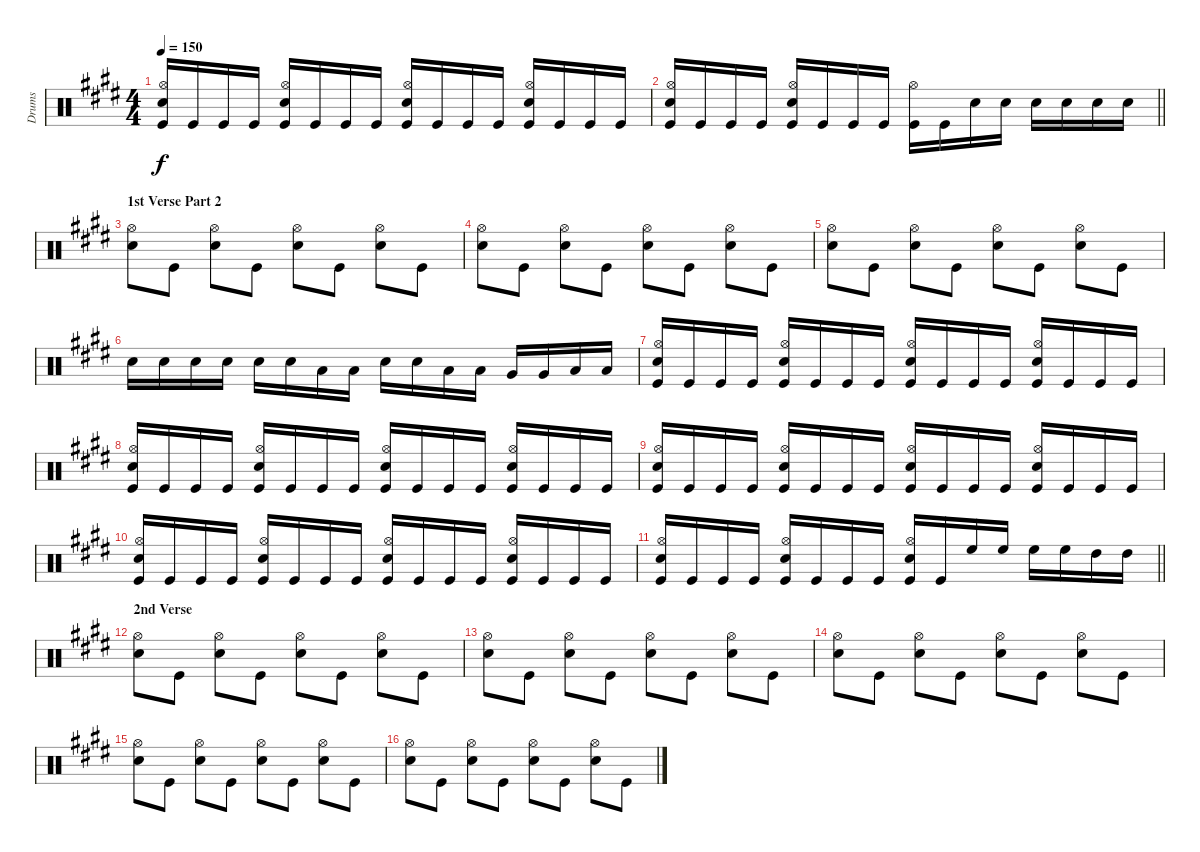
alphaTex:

\track ("Drums" "Drums") {instrument percussion}
\staff {score}
\articulation defaults
\ts (4 4)
\tempo 150
\clef neutral
\ks c#minor
("Snare (hit) 2" "Hi-Hat (open)" "Kick (hit)").16{dy f} "Kick (hit)".16 "Kick (hit)".16 "Kick (hit)".16 ("Snare (hit) 2" "Hi-Hat (open)" "Kick (hit)").16 "Kick (hit)".16 "Kick (hit)".16 "Kick (hit)".16 ("Snare (hit) 2" "Hi-Hat (open)" "Kick (hit)").16 "Kick (hit)".16 "Kick (hit)".16 "Kick (hit)".16 ("Snare (hit) 2" "Hi-Hat (open)" "Kick (hit)").16 "Kick (hit)".16 "Kick (hit)".16 "Kick (hit)".16 |
\barLineRight lightlight
("Snare (hit) 2" "Hi-Hat (open)" "Kick (hit)").16 "Kick (hit)".16 "Kick (hit)".16 "Kick (hit)".16 ("Snare (hit) 2" "Hi-Hat (open)" "Kick (hit)").16 "Kick (hit)".16 "Kick (hit)".16 "Kick (hit)".16 ("Hi-Hat (open)" "Kick (hit)").16 "Kick (hit)".16 "Snare (hit) 2".16 "Snare (hit) 2".16 "Snare (hit) 2".16 "Snare (hit) 2".16 "Snare (hit) 2".16 "Snare (hit) 2".16 |
\section ("" "1st Verse Part 2")
("Snare (hit) 2" "Hi-Hat (open)").8 "Kick (hit)".8 ("Snare (hit) 2" "Hi-Hat (open)").8 "Kick (hit)".8 ("Snare (hit) 2" "Hi-Hat (open)").8 "Kick (hit)".8 ("Snare (hit) 2" "Hi-Hat (open)").8 "Kick (hit)".8 |
("Snare (hit) 2" "Hi-Hat (open)").8 "Kick (hit)".8 ("Snare (hit) 2" "Hi-Hat (open)").8 "Kick (hit)".8 ("Snare (hit) 2" "Hi-Hat (open)").8 "Kick (hit)".8 ("Snare (hit) 2" "Hi-Hat (open)").8 "Kick (hit)".8 |
("Snare (hit) 2" "Hi-Hat (open)").8 "Kick (hit)".8 ("Snare (hit) 2" "Hi-Hat (open)").8 "Kick (hit)".8 ("Snare (hit) 2" "Hi-Hat (open)").8 "Kick (hit)".8 ("Snare (hit) 2" "Hi-Hat (open)").8 "Kick (hit)".8 |
"Snare (hit) 2".16 "Snare (hit) 2".16 "Snare (hit) 2".16 "Snare (hit) 2".16 "Snare (hit) 2".16 "Snare (hit) 2".16 "Low Tom (hit)".16 "Low Tom (hit)".16 "Snare (hit) 2".16 "Snare (hit) 2".16 "Low Tom (hit)".16 "Low Tom (hit)".16 "Very Low Tom (hit)".16 "Very Low Tom (hit)".16 "Low Floor Tom (hit)".16 "Low Floor Tom (hit)".16 |
("Snare (hit) 2" "Hi-Hat (open)" "Kick (hit)").16 "Kick (hit)".16 "Kick (hit)".16 "Kick (hit)".16 ("Snare (hit) 2" "Hi-Hat (open)" "Kick (hit)").16 "Kick (hit)".16 "Kick (hit)".16 "Kick (hit)".16 ("Snare (hit) 2" "Hi-Hat (open)" "Kick (hit)").16 "Kick (hit)".16 "Kick (hit)".16 "Kick (hit)".16 ("Snare (hit) 2" "Hi-Hat (open)" "Kick (hit)").16 "Kick (hit)".16 "Kick (hit)".16 "Kick (hit)".16 |
("Snare (hit) 2" "Hi-Hat (open)" "Kick (hit)").16 "Kick (hit)".16 "Kick (hit)".16 "Kick (hit)".16 ("Snare (hit) 2" "Hi-Hat (open)" "Kick (hit)").16 "Kick (hit)".16 "Kick (hit)".16 "Kick (hit)".16 ("Snare (hit) 2" "Hi-Hat (open)" "Kick (hit)").16 "Kick (hit)".16 "Kick (hit)".16 "Kick (hit)".16 ("Snare (hit) 2" "Hi-Hat (open)" "Kick (hit)").16 "Kick (hit)".16 "Kick (hit)".16 "Kick (hit)".16 |
("Snare (hit) 2" "Hi-Hat (open)" "Kick (hit)").16 "Kick (hit)".16 "Kick (hit)".16 "Kick (hit)".16 ("Snare (hit) 2" "Hi-Hat (open)" "Kick (hit)").16 "Kick (hit)".16 "Kick (hit)".16 "Kick (hit)".16 ("Snare (hit) 2" "Hi-Hat (open)" "Kick (hit)").16 "Kick (hit)".16 "Kick (hit)".16 "Kick (hit)".16 ("Snare (hit) 2" "Hi-Hat (open)" "Kick (hit)").16 "Kick (hit)".16 "Kick (hit)".16 "Kick (hit)".16 |
("Snare (hit) 2" "Hi-Hat (open)" "Kick (hit)").16 "Kick (hit)".16 "Kick (hit)".16 "Kick (hit)".16 ("Snare (hit) 2" "Hi-Hat (open)" "Kick (hit)").16 "Kick (hit)".16 "Kick (hit)".16 "Kick (hit)".16 ("Snare (hit) 2" "Hi-Hat (open)" "Kick (hit)").16 "Kick (hit)".16 "Kick (hit)".16 "Kick (hit)".16 ("Snare (hit) 2" "Hi-Hat (open)" "Kick (hit)").16 "Kick (hit)".16 "Kick (hit)".16 "Kick (hit)".16 |
\barLineRight lightlight
("Snare (hit) 2" "Hi-Hat (open)" "Kick (hit)").16 "Kick (hit)".16 "Kick (hit)".16 "Kick (hit)".16 ("Snare (hit) 2" "Hi-Hat (open)" "Kick (hit)").16 "Kick (hit)".16 "Kick (hit)".16 "Kick (hit)".16 ("Snare (hit) 2" "Hi-Hat (open)" "Kick (hit)").16 "Kick (hit)".16 "High Floor Tom (hit)".16 "High Floor Tom (hit)".16 "High Floor Tom (hit)".16 "High Floor Tom (hit)".16 "High Tom (hit)".16 "High Tom (hit)".16 |
\section ("" "2nd Verse")
("Snare (hit) 2" "Hi-Hat (open)").8 "Kick (hit)".8 ("Snare (hit) 2" "Hi-Hat (open)").8 "Kick (hit)".8 ("Snare (hit) 2" "Hi-Hat (open)").8 "Kick (hit)".8 ("Snare (hit) 2" "Hi-Hat (open)").8 "Kick (hit)".8 |
("Snare (hit) 2" "Hi-Hat (open)").8 "Kick (hit)".8 ("Snare (hit) 2" "Hi-Hat (open)").8 "Kick (hit)".8 ("Snare (hit) 2" "Hi-Hat (open)").8 "Kick (hit)".8 ("Snare (hit) 2" "Hi-Hat (open)").8 "Kick (hit)".8 |
("Snare (hit) 2" "Hi-Hat (open)").8 "Kick (hit)".8 ("Snare (hit) 2" "Hi-Hat (open)").8 "Kick (hit)".8 ("Snare (hit) 2" "Hi-Hat (open)").8 "Kick (hit)".8 ("Snare (hit) 2" "Hi-Hat (open)").8 "Kick (hit)".8 |
("Snare (hit) 2" "Hi-Hat (open)").8 "Kick (hit)".8 ("Snare (hit) 2" "Hi-Hat (open)").8 "Kick (hit)".8 ("Snare (hit) 2" "Hi-Hat (open)").8 "Kick (hit)".8 ("Snare (hit) 2" "Hi-Hat (open)").8 "Kick (hit)".8 |
("Snare (hit) 2" "Hi-Hat (open)").8 "Kick (hit)".8 ("Snare (hit) 2" "Hi-Hat (open)").8 "Kick (hit)".8 ("Snare (hit) 2" "Hi-Hat (open)").8 "Kick (hit)".8 ("Snare (hit) 2" "Hi-Hat (open)").8 "Kick (hit)".8
